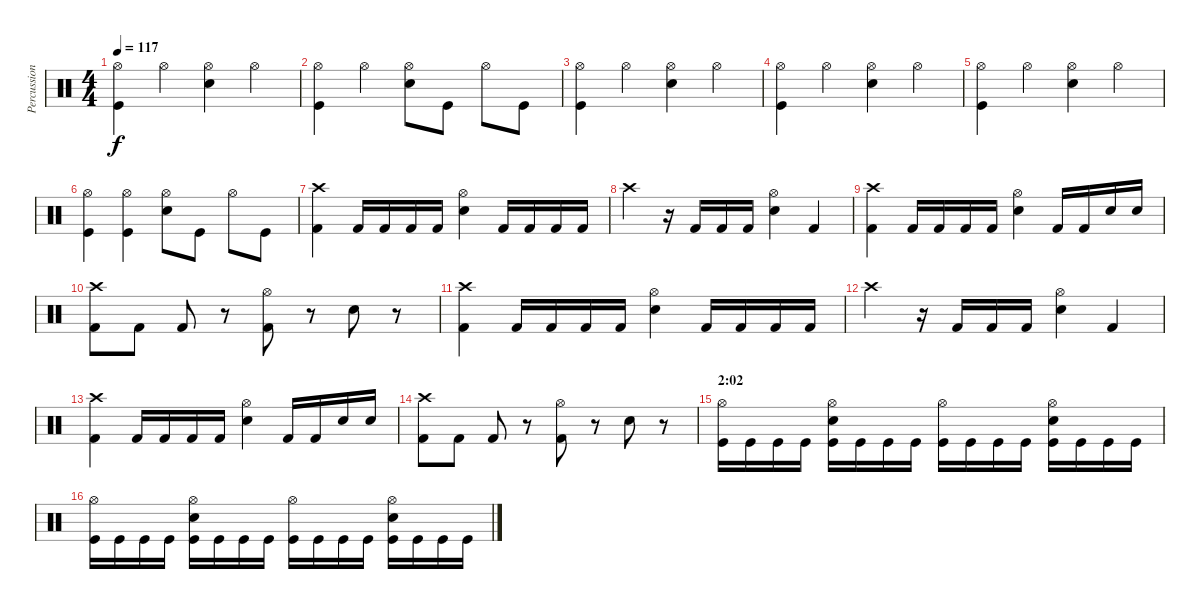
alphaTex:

\track ("Percussion" "Percussion") {instrument percussion}
\staff {score}
\articulation defaults
\ts (4 4)
\tempo 117
\clef neutral
\ks c
("Hi-Hat (open)" "Kick (hit)").4{dy f} "Hi-Hat (open)".4 ("Hi-Hat (open)" "Electric Snare (hit)").4 "Hi-Hat (open)".4 |
("Hi-Hat (open)" "Kick (hit)").4 "Hi-Hat (open)".4 ("Hi-Hat (open)" "Electric Snare (hit)").8 "Kick (hit)".8 "Hi-Hat (open)".8 "Kick (hit)".8 |
("Hi-Hat (open)" "Kick (hit)").4 "Hi-Hat (open)".4 ("Hi-Hat (open)" "Electric Snare (hit)").4 "Hi-Hat (open)".4 |
("Hi-Hat (open)" "Kick (hit)").4 "Hi-Hat (open)".4 ("Hi-Hat (open)" "Electric Snare (hit)").4 "Hi-Hat (open)".4 |
("Hi-Hat (open)" "Kick (hit)").4 "Hi-Hat (open)".4 ("Hi-Hat (open)" "Electric Snare (hit)").4 "Hi-Hat (open)".4 |
("Hi-Hat (open)" "Kick (hit)").4 ("Hi-Hat (open)" "Kick (hit)").4 ("Hi-Hat (open)" "Electric Snare (hit)").8 "Kick (hit)".8 "Hi-Hat (open)".8 "Kick (hit)".8 |
("Crash high (hit)" "Kick (hit) 2").4 "Kick (hit) 2".16 "Kick (hit) 2".16 "Kick (hit) 2".16 "Kick (hit) 2".16 ("Hi-Hat (open)" "Snare (hit) 2").4 "Kick (hit) 2".16 "Kick (hit) 2".16 "Kick (hit) 2".16 "Kick (hit) 2".16 |
"Crash high (hit)".4 r.16 "Kick (hit) 2".16 "Kick (hit) 2".16 "Kick (hit) 2".16 ("Hi-Hat (open)" "Snare (hit) 2").4 "Kick (hit) 2".4 |
("Crash high (hit)" "Kick (hit) 2").4 "Kick (hit) 2".16 "Kick (hit) 2".16 "Kick (hit) 2".16 "Kick (hit) 2".16 ("Hi-Hat (open)" "Snare (hit) 2").4 "Kick (hit) 2".16 "Kick (hit) 2".16 "Snare (hit) 2".16 "Snare (hit) 2".16 |
("Crash high (hit)" "Kick (hit) 2").8 "Kick (hit) 2".8 "Kick (hit) 2".8 r.8 ("Hi-Hat (open)" "Kick (hit) 2").8 r.8 "Snare (hit) 2".8 r.8 |
("Crash high (hit)" "Kick (hit) 2").4 "Kick (hit) 2".16 "Kick (hit) 2".16 "Kick (hit) 2".16 "Kick (hit) 2".16 ("Hi-Hat (open)" "Snare (hit) 2").4 "Kick (hit) 2".16 "Kick (hit) 2".16 "Kick (hit) 2".16 "Kick (hit) 2".16 |
"Crash high (hit)".4 r.16 "Kick (hit) 2".16 "Kick (hit) 2".16 "Kick (hit) 2".16 ("Hi-Hat (open)" "Snare (hit) 2").4 "Kick (hit) 2".4 |
("Crash high (hit)" "Kick (hit) 2").4 "Kick (hit) 2".16 "Kick (hit) 2".16 "Kick (hit) 2".16 "Kick (hit) 2".16 ("Hi-Hat (open)" "Snare (hit) 2").4 "Kick (hit) 2".16 "Kick (hit) 2".16 "Snare (hit) 2".16 "Snare (hit) 2".16 |
("Crash high (hit)" "Kick (hit) 2").8 "Kick (hit) 2".8 "Kick (hit) 2".8 r.8 ("Hi-Hat (open)" "Kick (hit) 2").8 r.8 "Snare (hit) 2".8 r.8 |
\section ("" "2:02")
("Hi-Hat (open)" "Kick (hit)").16 "Kick (hit)".16 "Kick (hit)".16 "Kick (hit)".16 ("Hi-Hat (open)" "Electric Snare (hit)" "Kick (hit)").16 "Kick (hit)".16 "Kick (hit)".16 "Kick (hit)".16 ("Hi-Hat (open)" "Kick (hit)").16 "Kick (hit)".16 "Kick (hit)".16 "Kick (hit)".16 ("Hi-Hat (open)" "Electric Snare (hit)" "Kick (hit)").16 "Kick (hit)".16 "Kick (hit)".16 "Kick (hit)".16 |
("Hi-Hat (open)" "Kick (hit)").16 "Kick (hit)".16 "Kick (hit)".16 "Kick (hit)".16 ("Hi-Hat (open)" "Electric Snare (hit)" "Kick (hit)").16 "Kick (hit)".16 "Kick (hit)".16 "Kick (hit)".16 ("Hi-Hat (open)" "Kick (hit)").16 "Kick (hit)".16 "Kick (hit)".16 "Kick (hit)".16 ("Hi-Hat (open)" "Electric Snare (hit)" "Kick (hit)").16 "Kick (hit)".16 "Kick (hit)".16 "Kick (hit)".16
